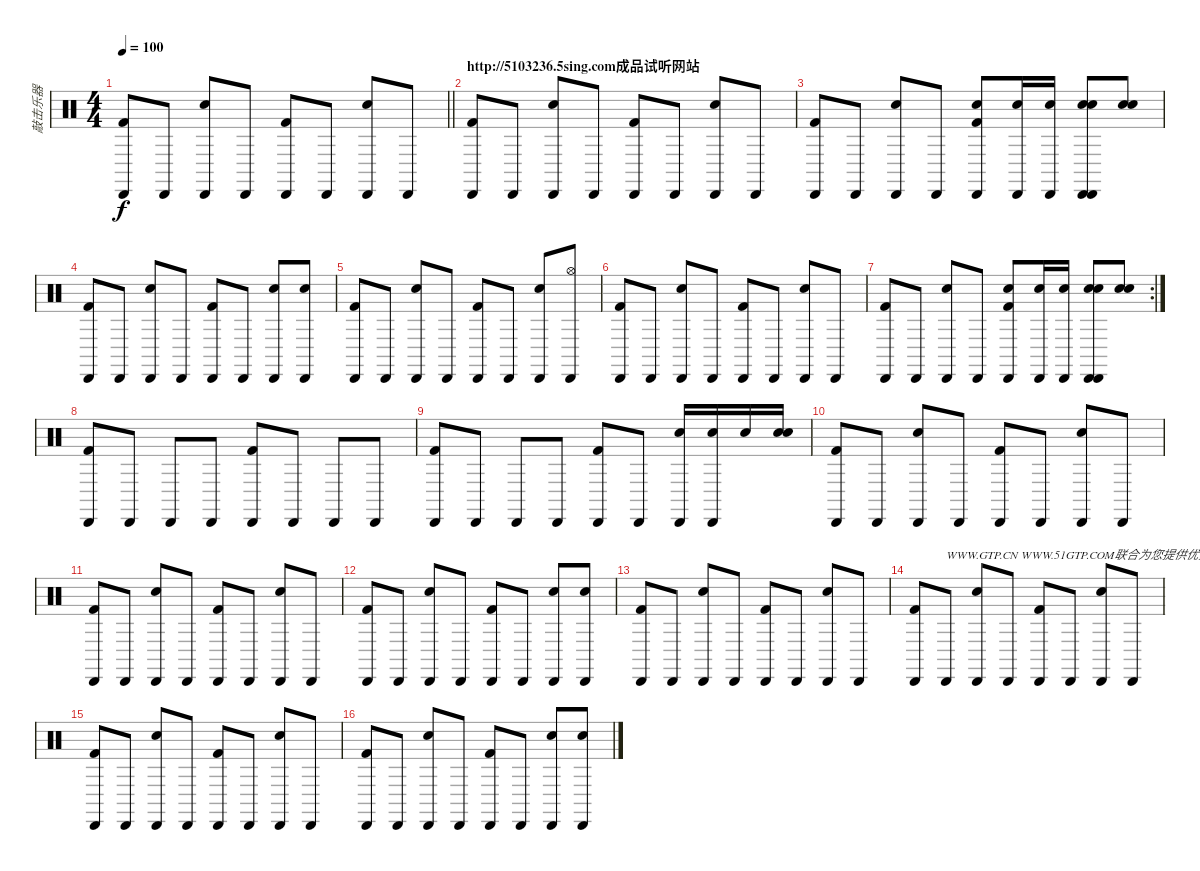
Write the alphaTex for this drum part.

\track ("敲击乐器" "敲击乐器") {instrument percussion}
\staff {score}
\articulation defaults
\ts (4 4)
\tempo 100
\clef neutral
\barLineRight lightlight
\ks c
("Cabasa (hit)" "Kick (hit) 2").8{dy f} "Cabasa (hit)".8 ("Cabasa (hit)" "Snare (hit) 2").8 "Cabasa (hit)".8 ("Cabasa (hit)" "Kick (hit) 2").8 "Cabasa (hit)".8 ("Cabasa (hit)" "Snare (hit) 2").8 "Cabasa (hit)".8 |
\section ("" "http://5103236.5sing.com成品试听网站")
("Cabasa (hit)" "Kick (hit) 2").8 "Cabasa (hit)".8 ("Cabasa (hit)" "Snare (hit) 2").8 "Cabasa (hit)".8 ("Cabasa (hit)" "Kick (hit) 2").8 "Cabasa (hit)".8 ("Cabasa (hit)" "Snare (hit) 2").8 "Cabasa (hit)".8 |
("Cabasa (hit)" "Kick (hit) 2").8 "Cabasa (hit)".8 ("Cabasa (hit)" "Snare (hit) 2").8 "Cabasa (hit)".8 ("Cabasa (hit)" "Kick (hit) 2" "Snare (hit) 2").8 ("Cabasa (hit)" "Snare (hit) 2").16 ("Cabasa (hit)" "Snare (hit) 2").16 ("Cabasa (hit)" "Snare (hit) 2" "Electric Snare (hit)" "Cabasa (hit)").8 ("Electric Snare (hit)" "Snare (hit) 2").8 |
("Cabasa (hit)" "Kick (hit) 2").8 "Cabasa (hit)".8 ("Cabasa (hit)" "Snare (hit) 2").8 "Cabasa (hit)".8 ("Cabasa (hit)" "Kick (hit) 2").8 "Cabasa (hit)".8 ("Cabasa (hit)" "Snare (hit) 2").8 ("Cabasa (hit)" "Electric Snare (hit)").8 |
("Cabasa (hit)" "Kick (hit) 2").8 "Cabasa (hit)".8 ("Cabasa (hit)" "Snare (hit) 2").8 "Cabasa (hit)".8 ("Cabasa (hit)" "Kick (hit) 2").8 "Cabasa (hit)".8 ("Cabasa (hit)" "Snare (hit) 2").8 ("Cabasa (hit)" "Hi-Hat (open)").8 |
("Cabasa (hit)" "Kick (hit) 2").8 "Cabasa (hit)".8 ("Cabasa (hit)" "Snare (hit) 2").8 "Cabasa (hit)".8 ("Cabasa (hit)" "Kick (hit) 2").8 "Cabasa (hit)".8 ("Cabasa (hit)" "Snare (hit) 2").8 "Cabasa (hit)".8 |
\rc 2
("Cabasa (hit)" "Kick (hit) 2").8 "Cabasa (hit)".8 ("Cabasa (hit)" "Snare (hit) 2").8 "Cabasa (hit)".8 ("Cabasa (hit)" "Kick (hit) 2" "Snare (hit) 2").8 ("Cabasa (hit)" "Snare (hit) 2").16 ("Cabasa (hit)" "Snare (hit) 2").16 ("Cabasa (hit)" "Snare (hit) 2" "Electric Snare (hit)" "Cabasa (hit)").8 ("Electric Snare (hit)" "Snare (hit) 2").8 |
("Cabasa (hit)" "Kick (hit) 2").8 "Cabasa (hit)".8 "Cabasa (hit)".8 "Cabasa (hit)".8 ("Cabasa (hit)" "Kick (hit) 2").8 "Cabasa (hit)".8 "Cabasa (hit)".8 "Cabasa (hit)".8 |
("Cabasa (hit)" "Kick (hit) 2").8 "Cabasa (hit)".8 "Cabasa (hit)".8 "Cabasa (hit)".8 ("Cabasa (hit)" "Kick (hit) 2").8 "Cabasa (hit)".8 ("Cabasa (hit)" "Snare (hit) 2").16 ("Cabasa (hit)" "Snare (hit) 2").16 "Snare (hit) 2".16 ("Snare (hit) 2" "Electric Snare (hit)").16 |
("Cabasa (hit)" "Kick (hit) 2").8 "Cabasa (hit)".8 ("Cabasa (hit)" "Snare (hit) 2").8 "Cabasa (hit)".8 ("Cabasa (hit)" "Kick (hit) 2").8 "Cabasa (hit)".8 ("Cabasa (hit)" "Snare (hit) 2").8 "Cabasa (hit)".8 |
("Cabasa (hit)" "Kick (hit) 2").8 "Cabasa (hit)".8 ("Cabasa (hit)" "Snare (hit) 2").8 "Cabasa (hit)".8 ("Cabasa (hit)" "Kick (hit) 2").8 "Cabasa (hit)".8 ("Cabasa (hit)" "Snare (hit) 2").8 "Cabasa (hit)".8 |
("Cabasa (hit)" "Kick (hit) 2").8 "Cabasa (hit)".8 ("Cabasa (hit)" "Snare (hit) 2").8 "Cabasa (hit)".8 ("Cabasa (hit)" "Kick (hit) 2").8 "Cabasa (hit)".8 ("Cabasa (hit)" "Snare (hit) 2").8 ("Cabasa (hit)" "Electric Snare (hit)").8 |
("Cabasa (hit)" "Kick (hit) 2").8 "Cabasa (hit)".8 ("Cabasa (hit)" "Snare (hit) 2").8 "Cabasa (hit)".8 ("Cabasa (hit)" "Kick (hit) 2").8 "Cabasa (hit)".8 ("Cabasa (hit)" "Snare (hit) 2").8 "Cabasa (hit)".8 |
("Cabasa (hit)" "Kick (hit) 2").8 "Cabasa (hit)".8{txt "WWW.GTP.CN WWW.51GTP.COM联合为您提供优秀的GTP!"} ("Cabasa (hit)" "Snare (hit) 2").8 "Cabasa (hit)".8 ("Cabasa (hit)" "Kick (hit) 2").8 "Cabasa (hit)".8 ("Cabasa (hit)" "Snare (hit) 2").8 "Cabasa (hit)".8 |
("Cabasa (hit)" "Kick (hit) 2").8 "Cabasa (hit)".8 ("Cabasa (hit)" "Snare (hit) 2").8 "Cabasa (hit)".8 ("Cabasa (hit)" "Kick (hit) 2").8 "Cabasa (hit)".8 ("Cabasa (hit)" "Snare (hit) 2").8 "Cabasa (hit)".8 |
("Cabasa (hit)" "Kick (hit) 2").8 "Cabasa (hit)".8 ("Cabasa (hit)" "Snare (hit) 2").8 "Cabasa (hit)".8 ("Cabasa (hit)" "Kick (hit) 2").8 "Cabasa (hit)".8 ("Cabasa (hit)" "Snare (hit) 2").8 ("Cabasa (hit)" "Electric Snare (hit)").8
